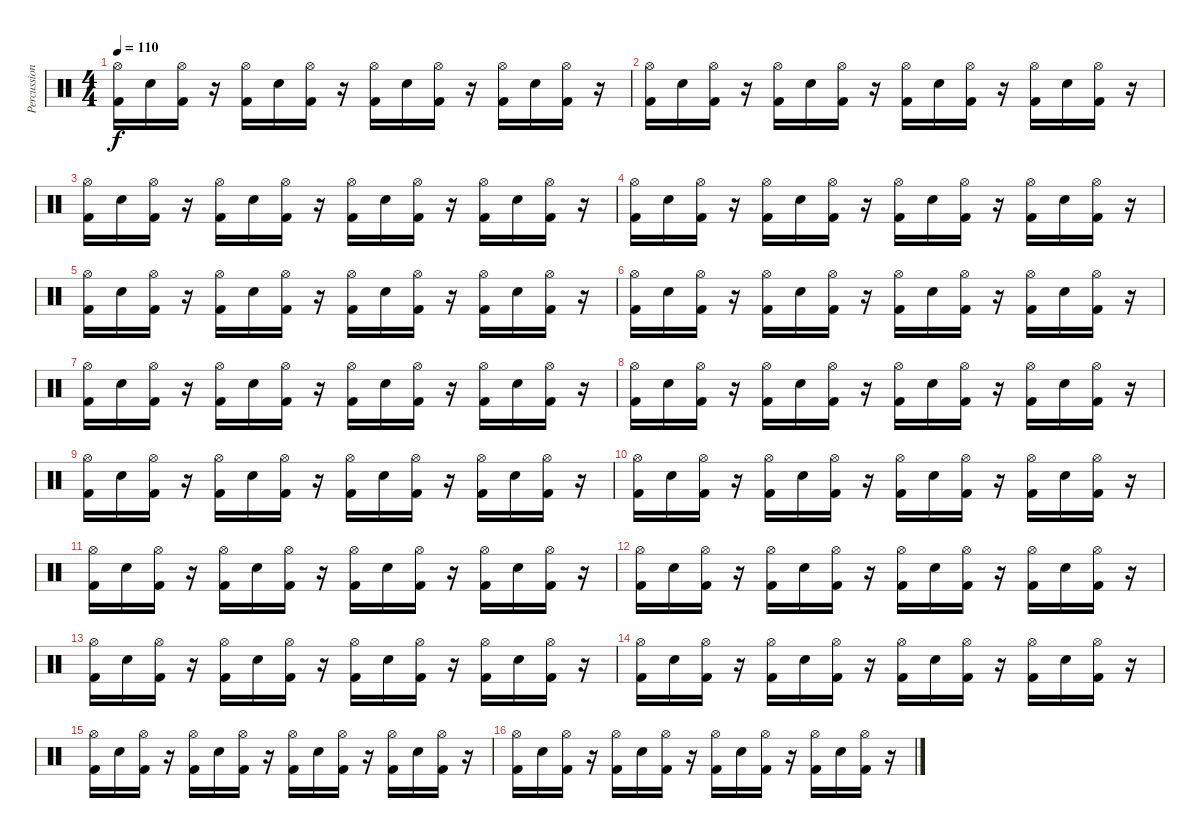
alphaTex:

\track ("Percussion" "Percussion") {instrument percussion}
\staff {score}
\articulation defaults
\ts (4 4)
\tempo 110
\clef neutral
\ks c
("Hi-Hat (open)" "Kick (hit) 2").16{dy f} "Snare (hit) 2".16 ("Hi-Hat (open)" "Kick (hit) 2").16 r.16 ("Hi-Hat (open)" "Kick (hit) 2").16 "Snare (hit) 2".16 ("Hi-Hat (open)" "Kick (hit) 2").16 r.16 ("Hi-Hat (open)" "Kick (hit) 2").16 "Snare (hit) 2".16 ("Hi-Hat (open)" "Kick (hit) 2").16 r.16 ("Hi-Hat (open)" "Kick (hit) 2").16 "Snare (hit) 2".16 ("Hi-Hat (open)" "Kick (hit) 2").16 r.16 |
("Hi-Hat (open)" "Kick (hit) 2").16 "Snare (hit) 2".16 ("Hi-Hat (open)" "Kick (hit) 2").16 r.16 ("Hi-Hat (open)" "Kick (hit) 2").16 "Snare (hit) 2".16 ("Hi-Hat (open)" "Kick (hit) 2").16 r.16 ("Hi-Hat (open)" "Kick (hit) 2").16 "Snare (hit) 2".16 ("Hi-Hat (open)" "Kick (hit) 2").16 r.16 ("Hi-Hat (open)" "Kick (hit) 2").16 "Snare (hit) 2".16 ("Hi-Hat (open)" "Kick (hit) 2").16 r.16 |
("Hi-Hat (open)" "Kick (hit) 2").16 "Snare (hit) 2".16 ("Hi-Hat (open)" "Kick (hit) 2").16 r.16 ("Hi-Hat (open)" "Kick (hit) 2").16 "Snare (hit) 2".16 ("Hi-Hat (open)" "Kick (hit) 2").16 r.16 ("Hi-Hat (open)" "Kick (hit) 2").16 "Snare (hit) 2".16 ("Hi-Hat (open)" "Kick (hit) 2").16 r.16 ("Hi-Hat (open)" "Kick (hit) 2").16 "Snare (hit) 2".16 ("Hi-Hat (open)" "Kick (hit) 2").16 r.16 |
("Hi-Hat (open)" "Kick (hit) 2").16 "Snare (hit) 2".16 ("Hi-Hat (open)" "Kick (hit) 2").16 r.16 ("Hi-Hat (open)" "Kick (hit) 2").16 "Snare (hit) 2".16 ("Hi-Hat (open)" "Kick (hit) 2").16 r.16 ("Hi-Hat (open)" "Kick (hit) 2").16 "Snare (hit) 2".16 ("Hi-Hat (open)" "Kick (hit) 2").16 r.16 ("Hi-Hat (open)" "Kick (hit) 2").16 "Snare (hit) 2".16 ("Hi-Hat (open)" "Kick (hit) 2").16 r.16 |
("Hi-Hat (open)" "Kick (hit) 2").16 "Snare (hit) 2".16 ("Hi-Hat (open)" "Kick (hit) 2").16 r.16 ("Hi-Hat (open)" "Kick (hit) 2").16 "Snare (hit) 2".16 ("Hi-Hat (open)" "Kick (hit) 2").16 r.16 ("Hi-Hat (open)" "Kick (hit) 2").16 "Snare (hit) 2".16 ("Hi-Hat (open)" "Kick (hit) 2").16 r.16 ("Hi-Hat (open)" "Kick (hit) 2").16 "Snare (hit) 2".16 ("Hi-Hat (open)" "Kick (hit) 2").16 r.16 |
("Hi-Hat (open)" "Kick (hit) 2").16 "Snare (hit) 2".16 ("Hi-Hat (open)" "Kick (hit) 2").16 r.16 ("Hi-Hat (open)" "Kick (hit) 2").16 "Snare (hit) 2".16 ("Hi-Hat (open)" "Kick (hit) 2").16 r.16 ("Hi-Hat (open)" "Kick (hit) 2").16 "Snare (hit) 2".16 ("Hi-Hat (open)" "Kick (hit) 2").16 r.16 ("Hi-Hat (open)" "Kick (hit) 2").16 "Snare (hit) 2".16 ("Hi-Hat (open)" "Kick (hit) 2").16 r.16 |
("Hi-Hat (open)" "Kick (hit) 2").16 "Snare (hit) 2".16 ("Hi-Hat (open)" "Kick (hit) 2").16 r.16 ("Hi-Hat (open)" "Kick (hit) 2").16 "Snare (hit) 2".16 ("Hi-Hat (open)" "Kick (hit) 2").16 r.16 ("Hi-Hat (open)" "Kick (hit) 2").16 "Snare (hit) 2".16 ("Hi-Hat (open)" "Kick (hit) 2").16 r.16 ("Hi-Hat (open)" "Kick (hit) 2").16 "Snare (hit) 2".16 ("Hi-Hat (open)" "Kick (hit) 2").16 r.16 |
("Hi-Hat (open)" "Kick (hit) 2").16 "Snare (hit) 2".16 ("Hi-Hat (open)" "Kick (hit) 2").16 r.16 ("Hi-Hat (open)" "Kick (hit) 2").16 "Snare (hit) 2".16 ("Hi-Hat (open)" "Kick (hit) 2").16 r.16 ("Hi-Hat (open)" "Kick (hit) 2").16 "Snare (hit) 2".16 ("Hi-Hat (open)" "Kick (hit) 2").16 r.16 ("Hi-Hat (open)" "Kick (hit) 2").16 "Snare (hit) 2".16 ("Hi-Hat (open)" "Kick (hit) 2").16 r.16 |
("Hi-Hat (open)" "Kick (hit) 2").16 "Snare (hit) 2".16 ("Hi-Hat (open)" "Kick (hit) 2").16 r.16 ("Hi-Hat (open)" "Kick (hit) 2").16 "Snare (hit) 2".16 ("Hi-Hat (open)" "Kick (hit) 2").16 r.16 ("Hi-Hat (open)" "Kick (hit) 2").16 "Snare (hit) 2".16 ("Hi-Hat (open)" "Kick (hit) 2").16 r.16 ("Hi-Hat (open)" "Kick (hit) 2").16 "Snare (hit) 2".16 ("Hi-Hat (open)" "Kick (hit) 2").16 r.16 |
("Hi-Hat (open)" "Kick (hit) 2").16 "Snare (hit) 2".16 ("Hi-Hat (open)" "Kick (hit) 2").16 r.16 ("Hi-Hat (open)" "Kick (hit) 2").16 "Snare (hit) 2".16 ("Hi-Hat (open)" "Kick (hit) 2").16 r.16 ("Hi-Hat (open)" "Kick (hit) 2").16 "Snare (hit) 2".16 ("Hi-Hat (open)" "Kick (hit) 2").16 r.16 ("Hi-Hat (open)" "Kick (hit) 2").16 "Snare (hit) 2".16 ("Hi-Hat (open)" "Kick (hit) 2").16 r.16 |
("Hi-Hat (open)" "Kick (hit) 2").16 "Snare (hit) 2".16 ("Hi-Hat (open)" "Kick (hit) 2").16 r.16 ("Hi-Hat (open)" "Kick (hit) 2").16 "Snare (hit) 2".16 ("Hi-Hat (open)" "Kick (hit) 2").16 r.16 ("Hi-Hat (open)" "Kick (hit) 2").16 "Snare (hit) 2".16 ("Hi-Hat (open)" "Kick (hit) 2").16 r.16 ("Hi-Hat (open)" "Kick (hit) 2").16 "Snare (hit) 2".16 ("Hi-Hat (open)" "Kick (hit) 2").16 r.16 |
("Hi-Hat (open)" "Kick (hit) 2").16 "Snare (hit) 2".16 ("Hi-Hat (open)" "Kick (hit) 2").16 r.16 ("Hi-Hat (open)" "Kick (hit) 2").16 "Snare (hit) 2".16 ("Hi-Hat (open)" "Kick (hit) 2").16 r.16 ("Hi-Hat (open)" "Kick (hit) 2").16 "Snare (hit) 2".16 ("Hi-Hat (open)" "Kick (hit) 2").16 r.16 ("Hi-Hat (open)" "Kick (hit) 2").16 "Snare (hit) 2".16 ("Hi-Hat (open)" "Kick (hit) 2").16 r.16 |
("Hi-Hat (open)" "Kick (hit) 2").16 "Snare (hit) 2".16 ("Hi-Hat (open)" "Kick (hit) 2").16 r.16 ("Hi-Hat (open)" "Kick (hit) 2").16 "Snare (hit) 2".16 ("Hi-Hat (open)" "Kick (hit) 2").16 r.16 ("Hi-Hat (open)" "Kick (hit) 2").16 "Snare (hit) 2".16 ("Hi-Hat (open)" "Kick (hit) 2").16 r.16 ("Hi-Hat (open)" "Kick (hit) 2").16 "Snare (hit) 2".16 ("Hi-Hat (open)" "Kick (hit) 2").16 r.16 |
("Hi-Hat (open)" "Kick (hit) 2").16 "Snare (hit) 2".16 ("Hi-Hat (open)" "Kick (hit) 2").16 r.16 ("Hi-Hat (open)" "Kick (hit) 2").16 "Snare (hit) 2".16 ("Hi-Hat (open)" "Kick (hit) 2").16 r.16 ("Hi-Hat (open)" "Kick (hit) 2").16 "Snare (hit) 2".16 ("Hi-Hat (open)" "Kick (hit) 2").16 r.16 ("Hi-Hat (open)" "Kick (hit) 2").16 "Snare (hit) 2".16 ("Hi-Hat (open)" "Kick (hit) 2").16 r.16 |
("Hi-Hat (open)" "Kick (hit) 2").16 "Snare (hit) 2".16 ("Hi-Hat (open)" "Kick (hit) 2").16 r.16 ("Hi-Hat (open)" "Kick (hit) 2").16 "Snare (hit) 2".16 ("Hi-Hat (open)" "Kick (hit) 2").16 r.16 ("Hi-Hat (open)" "Kick (hit) 2").16 "Snare (hit) 2".16 ("Hi-Hat (open)" "Kick (hit) 2").16 r.16 ("Hi-Hat (open)" "Kick (hit) 2").16 "Snare (hit) 2".16 ("Hi-Hat (open)" "Kick (hit) 2").16 r.16 |
("Hi-Hat (open)" "Kick (hit) 2").16 "Snare (hit) 2".16 ("Hi-Hat (open)" "Kick (hit) 2").16 r.16 ("Hi-Hat (open)" "Kick (hit) 2").16 "Snare (hit) 2".16 ("Hi-Hat (open)" "Kick (hit) 2").16 r.16 ("Hi-Hat (open)" "Kick (hit) 2").16 "Snare (hit) 2".16 ("Hi-Hat (open)" "Kick (hit) 2").16 r.16 ("Hi-Hat (open)" "Kick (hit) 2").16 "Snare (hit) 2".16 ("Hi-Hat (open)" "Kick (hit) 2").16 r.16
